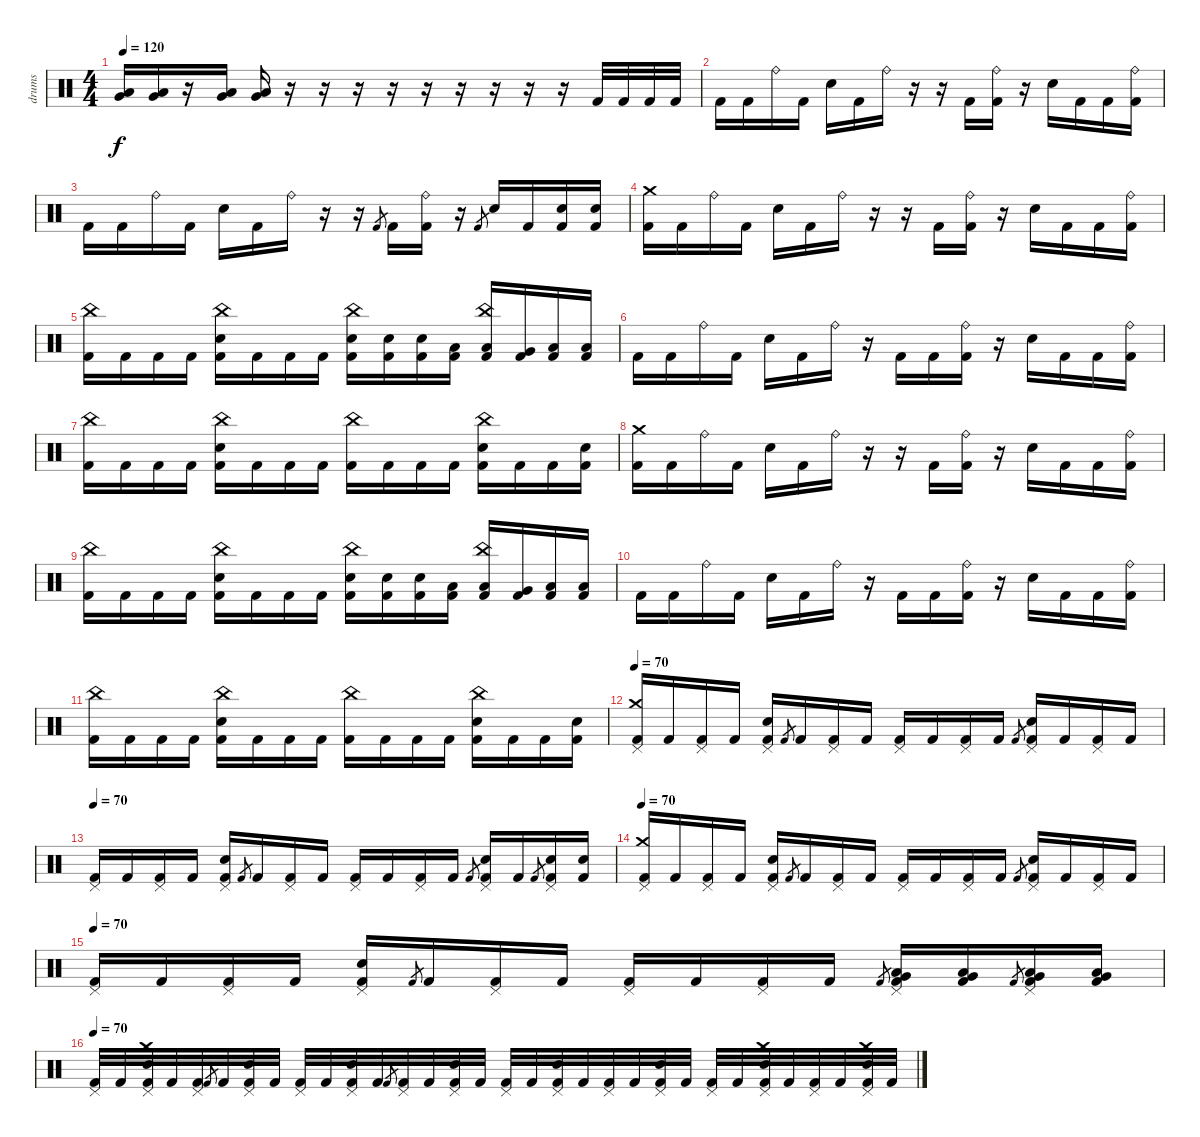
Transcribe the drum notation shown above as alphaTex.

\track ("drums" "drums") {instrument percussion}
\staff {score}
\articulation defaults
\ts (4 4)
\tempo 120
\clef neutral
\ks c
("Very Low Tom (hit)" "Low Floor Tom (hit)").16{dy f} ("Very Low Tom (hit)" "Low Floor Tom (hit)").16 r.16 ("Very Low Tom (hit)" "Low Floor Tom (hit)").16 ("Very Low Tom (hit)" "Low Floor Tom (hit)").16 r.16 r.16 r.16 r.16 r.16 r.16 r.16 r.16 r.16 "Kick (hit) 2".32 "Kick (hit) 2".32 "Kick (hit) 2".32 "Kick (hit) 2".32 |
"Kick (hit) 2".16 "Kick (hit) 2".16 "Ride (bell)".16 "Kick (hit) 2".16 "Electric Snare (hit)".16 "Kick (hit) 2".16 "Ride (bell)".16 r.16 r.16 "Kick (hit) 2".16 ("Ride (bell)" "Kick (hit) 2").16 r.16 "Electric Snare (hit)".16 "Kick (hit) 2".16 "Kick (hit) 2".16 ("Ride (bell)" "Kick (hit) 2").16 |
"Kick (hit) 2".16 "Kick (hit) 2".16 "Ride (bell)".16 "Kick (hit) 2".16 "Electric Snare (hit)".16 "Kick (hit) 2".16 "Ride (bell)".16 r.16 r.16 "Kick (hit) 2".8{gr} "Kick (hit) 2".16 ("Ride (bell)" "Kick (hit) 2").16 r.16 "Kick (hit) 2".8{gr} "Electric Snare (hit)".16 "Kick (hit) 2".16 ("Electric Snare (hit)" "Kick (hit) 2").16 ("Electric Snare (hit)" "Kick (hit) 2").16 |
("Crash medium (hit)" "Kick (hit) 2").16 "Kick (hit) 2".16 "Ride (bell)".16 "Kick (hit) 2".16 "Electric Snare (hit)".16 "Kick (hit) 2".16 "Ride (bell)".16 r.16 r.16 "Kick (hit) 2".16 ("Ride (bell)" "Kick (hit) 2").16 r.16 "Electric Snare (hit)".16 "Kick (hit) 2".16 "Kick (hit) 2".16 ("Ride (bell)" "Kick (hit) 2").16 |
("China (hit)" "Kick (hit) 2").16 "Kick (hit) 2".16 "Kick (hit) 2".16 "Kick (hit) 2".16 ("China (hit)" "Electric Snare (hit)" "Kick (hit) 2").16 "Kick (hit) 2".16 "Kick (hit) 2".16 "Kick (hit) 2".16 ("China (hit)" "Electric Snare (hit)" "Kick (hit) 2").16 ("Electric Snare (hit)" "Kick (hit) 2").16 ("Electric Snare (hit)" "Kick (hit) 2").16 ("Low Tom (hit)" "Kick (hit) 2").16 ("China (hit)" "Low Tom (hit)" "Kick (hit) 2").16 ("Very Low Tom (hit)" "Kick (hit) 2").16 ("Low Floor Tom (hit)" "Kick (hit) 2").16 ("Low Floor Tom (hit)" "Kick (hit) 2").16 |
"Kick (hit) 2".16 "Kick (hit) 2".16 "Ride (bell)".16 "Kick (hit) 2".16 "Electric Snare (hit)".16 "Kick (hit) 2".16 "Ride (bell)".16 r.16 "Kick (hit) 2".16 "Kick (hit) 2".16 ("Ride (bell)" "Kick (hit) 2").16 r.16 "Electric Snare (hit)".16 "Kick (hit) 2".16 "Kick (hit) 2".16 ("Ride (bell)" "Kick (hit) 2").16 |
("China (hit)" "Kick (hit) 2").16 "Kick (hit) 2".16 "Kick (hit) 2".16 "Kick (hit) 2".16 ("Electric Snare (hit)" "China (hit)" "Kick (hit) 2").16 "Kick (hit) 2".16 "Kick (hit) 2".16 "Kick (hit) 2".16 ("China (hit)" "Kick (hit) 2").16 "Kick (hit) 2".16 "Kick (hit) 2".16 "Kick (hit) 2".16 ("Electric Snare (hit)" "China (hit)" "Kick (hit) 2").16 "Kick (hit) 2".16 "Kick (hit) 2".16 ("Electric Snare (hit)" "Kick (hit) 2").16 |
("Crash medium (hit)" "Kick (hit) 2").16 "Kick (hit) 2".16 "Ride (bell)".16 "Kick (hit) 2".16 "Electric Snare (hit)".16 "Kick (hit) 2".16 "Ride (bell)".16 r.16 r.16 "Kick (hit) 2".16 ("Ride (bell)" "Kick (hit) 2").16 r.16 "Electric Snare (hit)".16 "Kick (hit) 2".16 "Kick (hit) 2".16 ("Ride (bell)" "Kick (hit) 2").16 |
("China (hit)" "Kick (hit) 2").16 "Kick (hit) 2".16 "Kick (hit) 2".16 "Kick (hit) 2".16 ("China (hit)" "Electric Snare (hit)" "Kick (hit) 2").16 "Kick (hit) 2".16 "Kick (hit) 2".16 "Kick (hit) 2".16 ("China (hit)" "Electric Snare (hit)" "Kick (hit) 2").16 ("Electric Snare (hit)" "Kick (hit) 2").16 ("Electric Snare (hit)" "Kick (hit) 2").16 ("Low Tom (hit)" "Kick (hit) 2").16 ("China (hit)" "Low Tom (hit)" "Kick (hit) 2").16 ("Very Low Tom (hit)" "Kick (hit) 2").16 ("Low Floor Tom (hit)" "Kick (hit) 2").16 ("Low Floor Tom (hit)" "Kick (hit) 2").16 |
"Kick (hit) 2".16 "Kick (hit) 2".16 "Ride (bell)".16 "Kick (hit) 2".16 "Electric Snare (hit)".16 "Kick (hit) 2".16 "Ride (bell)".16 r.16 "Kick (hit) 2".16 "Kick (hit) 2".16 ("Ride (bell)" "Kick (hit) 2").16 r.16 "Electric Snare (hit)".16 "Kick (hit) 2".16 "Kick (hit) 2".16 ("Ride (bell)" "Kick (hit) 2").16 |
("China (hit)" "Kick (hit) 2").16 "Kick (hit) 2".16 "Kick (hit) 2".16 "Kick (hit) 2".16 ("Electric Snare (hit)" "China (hit)" "Kick (hit) 2").16 "Kick (hit) 2".16 "Kick (hit) 2".16 "Kick (hit) 2".16 ("China (hit)" "Kick (hit) 2").16 "Kick (hit) 2".16 "Kick (hit) 2".16 "Kick (hit) 2".16 ("Electric Snare (hit)" "China (hit)" "Kick (hit) 2").16 "Kick (hit) 2".16 "Kick (hit) 2".16 ("Electric Snare (hit)" "Kick (hit) 2").16 |
\tempo 70
("Crash medium (hit)" "Pedal Hi-Hat (hit)" "Kick (hit) 2").16 "Kick (hit) 2".16 ("Pedal Hi-Hat (hit)" "Kick (hit) 2").16 "Kick (hit) 2".16 ("Electric Snare (hit)" "Pedal Hi-Hat (hit)" "Kick (hit) 2").16 "Kick (hit) 2".8{gr} "Kick (hit) 2".16 ("Pedal Hi-Hat (hit)" "Kick (hit) 2").16 "Kick (hit) 2".16 ("Pedal Hi-Hat (hit)" "Kick (hit) 2").16 "Kick (hit) 2".16 ("Pedal Hi-Hat (hit)" "Kick (hit) 2").16 "Kick (hit) 2".16 "Kick (hit) 2".8{gr} ("Electric Snare (hit)" "Pedal Hi-Hat (hit)" "Kick (hit) 2").16 "Kick (hit) 2".16 ("Pedal Hi-Hat (hit)" "Kick (hit) 2").16 "Kick (hit) 2".16 |
\tempo 70
("Pedal Hi-Hat (hit)" "Kick (hit) 2").16 "Kick (hit) 2".16 ("Pedal Hi-Hat (hit)" "Kick (hit) 2").16 "Kick (hit) 2".16 ("Electric Snare (hit)" "Pedal Hi-Hat (hit)" "Kick (hit) 2").16 "Kick (hit) 2".8{gr} "Kick (hit) 2".16 ("Pedal Hi-Hat (hit)" "Kick (hit) 2").16 "Kick (hit) 2".16 ("Pedal Hi-Hat (hit)" "Kick (hit) 2").16 "Kick (hit) 2".16 ("Pedal Hi-Hat (hit)" "Kick (hit) 2").16 "Kick (hit) 2".16 "Kick (hit) 2".8{gr} ("Electric Snare (hit)" "Pedal Hi-Hat (hit)" "Kick (hit) 2").16 "Kick (hit) 2".16 "Kick (hit) 2".8{gr} ("Electric Snare (hit)" "Pedal Hi-Hat (hit)" "Kick (hit) 2").16 ("Electric Snare (hit)" "Kick (hit) 2").16 |
\tempo 70
("Crash medium (hit)" "Pedal Hi-Hat (hit)" "Kick (hit) 2").16 "Kick (hit) 2".16 ("Pedal Hi-Hat (hit)" "Kick (hit) 2").16 "Kick (hit) 2".16 ("Electric Snare (hit)" "Pedal Hi-Hat (hit)" "Kick (hit) 2").16 "Kick (hit) 2".8{gr} "Kick (hit) 2".16 ("Pedal Hi-Hat (hit)" "Kick (hit) 2").16 "Kick (hit) 2".16 ("Pedal Hi-Hat (hit)" "Kick (hit) 2").16 "Kick (hit) 2".16 ("Pedal Hi-Hat (hit)" "Kick (hit) 2").16 "Kick (hit) 2".16 "Kick (hit) 2".8{gr} ("Electric Snare (hit)" "Pedal Hi-Hat (hit)" "Kick (hit) 2").16 "Kick (hit) 2".16 ("Pedal Hi-Hat (hit)" "Kick (hit) 2").16 "Kick (hit) 2".16 |
\tempo 70
("Pedal Hi-Hat (hit)" "Kick (hit) 2").16 "Kick (hit) 2".16 ("Pedal Hi-Hat (hit)" "Kick (hit) 2").16 "Kick (hit) 2".16 ("Electric Snare (hit)" "Pedal Hi-Hat (hit)" "Kick (hit) 2").16 "Kick (hit) 2".8{gr} "Kick (hit) 2".16 ("Pedal Hi-Hat (hit)" "Kick (hit) 2").16 "Kick (hit) 2".16 ("Pedal Hi-Hat (hit)" "Kick (hit) 2").16 "Kick (hit) 2".16 ("Pedal Hi-Hat (hit)" "Kick (hit) 2").16 "Kick (hit) 2".16 "Kick (hit) 2".8{gr} ("Very Low Tom (hit)" "Low Floor Tom (hit)" "Pedal Hi-Hat (hit)" "Kick (hit) 2").16 ("Very Low Tom (hit)" "Low Floor Tom (hit)" "Kick (hit) 2").16 "Kick (hit) 2".8{gr} ("Very Low Tom (hit)" "Low Floor Tom (hit)" "Pedal Hi-Hat (hit)" "Kick (hit) 2").16 ("Very Low Tom (hit)" "Low Floor Tom (hit)" "Kick (hit) 2").16 |
\tempo 70
("Pedal Hi-Hat (hit)" "Kick (hit) 2").32 "Kick (hit) 2".32 ("Crash medium (hit)" "Electric Snare (hit)" "Pedal Hi-Hat (hit)" "Kick (hit) 2").32 "Kick (hit) 2".32 ("Pedal Hi-Hat (hit)" "Kick (hit) 2").32 "Kick (hit) 2".8{gr} "Kick (hit) 2".32 ("Electric Snare (hit)" "Pedal Hi-Hat (hit)" "Kick (hit) 2").32 "Kick (hit) 2".32 ("Pedal Hi-Hat (hit)" "Kick (hit) 2").32 "Kick (hit) 2".32 ("Electric Snare (hit)" "Pedal Hi-Hat (hit)" "Kick (hit) 2").32 "Kick (hit) 2".32 "Kick (hit) 2".8{gr} ("Pedal Hi-Hat (hit)" "Kick (hit) 2").32 "Kick (hit) 2".32 ("Electric Snare (hit)" "Pedal Hi-Hat (hit)" "Kick (hit) 2").32 "Kick (hit) 2".32 ("Pedal Hi-Hat (hit)" "Kick (hit) 2").32 "Kick (hit) 2".32 ("Electric Snare (hit)" "Pedal Hi-Hat (hit)" "Kick (hit) 2").32 "Kick (hit) 2".32 ("Pedal Hi-Hat (hit)" "Kick (hit) 2").32 "Kick (hit) 2".32 ("Electric Snare (hit)" "Pedal Hi-Hat (hit)" "Kick (hit) 2").32 "Kick (hit) 2".32 ("Pedal Hi-Hat (hit)" "Kick (hit) 2").32 "Kick (hit) 2".32 ("Crash medium (hit)" "Electric Snare (hit)" "Pedal Hi-Hat (hit)" "Kick (hit) 2").32 "Kick (hit) 2".32 ("Pedal Hi-Hat (hit)" "Kick (hit) 2").32 "Kick (hit) 2".32 ("Crash medium (hit)" "Electric Snare (hit)" "Pedal Hi-Hat (hit)" "Kick (hit) 2").32 "Kick (hit) 2".32
